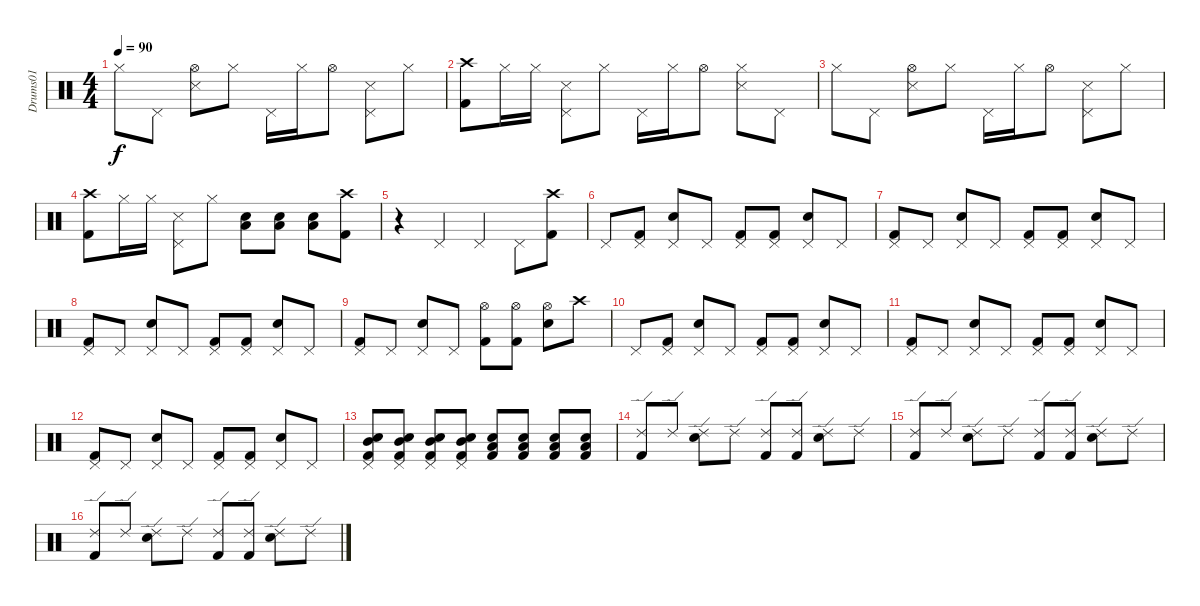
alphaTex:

\track ("Drums01" "Drums01") {instrument percussion}
\staff {score}
\articulation defaults
\ts (4 4)
\tempo 90
\clef neutral
\ks c "Hi-Hat (closed)".8{dy f} "Pedal Hi-Hat (hit)".8
("Hi-Hat (open)" "Snare (side stick) 3").8 "Hi-Hat (closed)".8 "Pedal Hi-Hat (hit)".16 "Hi-Hat (closed)".16 "Hi-Hat (open)".8 ("Pedal Hi-Hat (hit)" "Snare (side stick) 3").8 "Hi-Hat (closed)".8 |
("Crash high (hit)" "Kick (hit) 2").8 "Hi-Hat (closed)".16 "Hi-Hat (closed)".16 ("Pedal Hi-Hat (hit)" "Snare (side stick) 3").8 "Hi-Hat (closed)".8 "Pedal Hi-Hat (hit)".16 "Hi-Hat (closed)".16 "Hi-Hat (open)".8 ("Hi-Hat (closed)" "Snare (side stick) 3").8 "Pedal Hi-Hat (hit)".8 |
"Hi-Hat (closed)".8 "Pedal Hi-Hat (hit)".8 ("Hi-Hat (open)" "Snare (side stick) 3").8 "Hi-Hat (closed)".8 "Pedal Hi-Hat (hit)".16 "Hi-Hat (closed)".16 "Hi-Hat (open)".8 ("Pedal Hi-Hat (hit)" "Snare (side stick) 3").8 "Hi-Hat (closed)".8 |
("Crash high (hit)" "Kick (hit) 2").8 "Hi-Hat (closed)".16 "Hi-Hat (closed)".16 ("Pedal Hi-Hat (hit)" "Snare (side stick) 3").8 "Hi-Hat (closed)".8 ("Low Tom (hit)" "Snare (hit) 2").8 ("Low Tom (hit)" "Snare (hit) 2").8 ("Low Tom (hit)" "Snare (hit) 2").8 ("Crash high (hit)" "Kick (hit) 2").8 |
r.4 "Pedal Hi-Hat (hit)".4 "Pedal Hi-Hat (hit)".4 "Pedal Hi-Hat (hit)".8 ("Crash high (hit)" "Kick (hit) 2").8 |
"Pedal Hi-Hat (hit)".8 ("Pedal Hi-Hat (hit)" "Kick (hit) 2").8 ("Pedal Hi-Hat (hit)" "Snare (hit) 2").8 "Pedal Hi-Hat (hit)".8 ("Pedal Hi-Hat (hit)" "Kick (hit) 2").8 ("Pedal Hi-Hat (hit)" "Kick (hit) 2").8 ("Pedal Hi-Hat (hit)" "Snare (hit) 2").8 "Pedal Hi-Hat (hit)".8 |
("Pedal Hi-Hat (hit)" "Kick (hit) 2").8 "Pedal Hi-Hat (hit)".8 ("Pedal Hi-Hat (hit)" "Snare (hit) 2").8 "Pedal Hi-Hat (hit)".8 ("Pedal Hi-Hat (hit)" "Kick (hit) 2").8 ("Pedal Hi-Hat (hit)" "Kick (hit) 2").8 ("Pedal Hi-Hat (hit)" "Snare (hit) 2").8 "Pedal Hi-Hat (hit)".8 |
("Pedal Hi-Hat (hit)" "Kick (hit) 2").8 "Pedal Hi-Hat (hit)".8 ("Pedal Hi-Hat (hit)" "Snare (hit) 2").8 "Pedal Hi-Hat (hit)".8 ("Pedal Hi-Hat (hit)" "Kick (hit) 2").8 ("Pedal Hi-Hat (hit)" "Kick (hit) 2").8 ("Pedal Hi-Hat (hit)" "Snare (hit) 2").8 "Pedal Hi-Hat (hit)".8 |
("Pedal Hi-Hat (hit)" "Kick (hit) 2").8 "Pedal Hi-Hat (hit)".8 ("Pedal Hi-Hat (hit)" "Snare (hit) 2").8 "Pedal Hi-Hat (hit)".8 ("Hi-Hat (open)" "Kick (hit) 2").8 ("Hi-Hat (open)" "Kick (hit) 2").8 ("Hi-Hat (open)" "Snare (hit) 2").8 "Crash high (hit)".8 |
"Pedal Hi-Hat (hit)".8 ("Pedal Hi-Hat (hit)" "Kick (hit) 2").8 ("Pedal Hi-Hat (hit)" "Snare (hit) 2").8 "Pedal Hi-Hat (hit)".8 ("Pedal Hi-Hat (hit)" "Kick (hit) 2").8 ("Pedal Hi-Hat (hit)" "Kick (hit) 2").8 ("Pedal Hi-Hat (hit)" "Snare (hit) 2").8 "Pedal Hi-Hat (hit)".8 |
("Pedal Hi-Hat (hit)" "Kick (hit) 2").8 "Pedal Hi-Hat (hit)".8 ("Pedal Hi-Hat (hit)" "Snare (hit) 2").8 "Pedal Hi-Hat (hit)".8 ("Pedal Hi-Hat (hit)" "Kick (hit) 2").8 ("Pedal Hi-Hat (hit)" "Kick (hit) 2").8 ("Pedal Hi-Hat (hit)" "Snare (hit) 2").8 "Pedal Hi-Hat (hit)".8 |
("Pedal Hi-Hat (hit)" "Kick (hit) 2").8 "Pedal Hi-Hat (hit)".8 ("Pedal Hi-Hat (hit)" "Snare (hit) 2").8 "Pedal Hi-Hat (hit)".8 ("Pedal Hi-Hat (hit)" "Kick (hit) 2").8 ("Pedal Hi-Hat (hit)" "Kick (hit) 2").8 ("Pedal Hi-Hat (hit)" "Snare (hit) 2").8 "Pedal Hi-Hat (hit)".8 |
("Pedal Hi-Hat (hit)" "Mid Tom (hit)" "Snare (hit) 2" "Kick (hit) 2").8 ("Pedal Hi-Hat (hit)" "Mid Tom (hit)" "Snare (hit) 2" "Kick (hit) 2").8 ("Pedal Hi-Hat (hit)" "Mid Tom (hit)" "Snare (hit) 2" "Kick (hit) 2").8 ("Pedal Hi-Hat (hit)" "Mid Tom (hit)" "Snare (hit) 2" "Kick (hit) 2").8 ("Low Tom (hit)" "Snare (hit) 2" "Kick (hit) 2").8 ("Low Tom (hit)" "Snare (hit) 2" "Kick (hit) 2").8 ("Low Tom (hit)" "Snare (hit) 2" "Kick (hit) 2").8 ("Low Tom (hit)" "Snare (hit) 2" "Kick (hit) 2").8 |
("Ride (edge) 2" "Kick (hit) 2").8 "Ride (edge) 2".8 ("Ride (edge) 2" "Snare (hit) 2").8 "Ride (edge) 2".8 ("Ride (edge) 2" "Kick (hit) 2").8 ("Ride (edge) 2" "Kick (hit) 2").8 ("Ride (edge) 2" "Snare (hit) 2").8 "Ride (edge) 2".8 |
("Ride (edge) 2" "Kick (hit) 2").8 "Ride (edge) 2".8 ("Ride (edge) 2" "Snare (hit) 2").8 "Ride (edge) 2".8 ("Ride (edge) 2" "Kick (hit) 2").8 ("Ride (edge) 2" "Kick (hit) 2").8 ("Ride (edge) 2" "Snare (hit) 2").8 "Ride (edge) 2".8 |
("Ride (edge) 2" "Kick (hit) 2").8 "Ride (edge) 2".8 ("Ride (edge) 2" "Snare (hit) 2").8 "Ride (edge) 2".8 ("Ride (edge) 2" "Kick (hit) 2").8 ("Ride (edge) 2" "Kick (hit) 2").8 ("Ride (edge) 2" "Snare (hit) 2").8 "Ride (edge) 2".8
